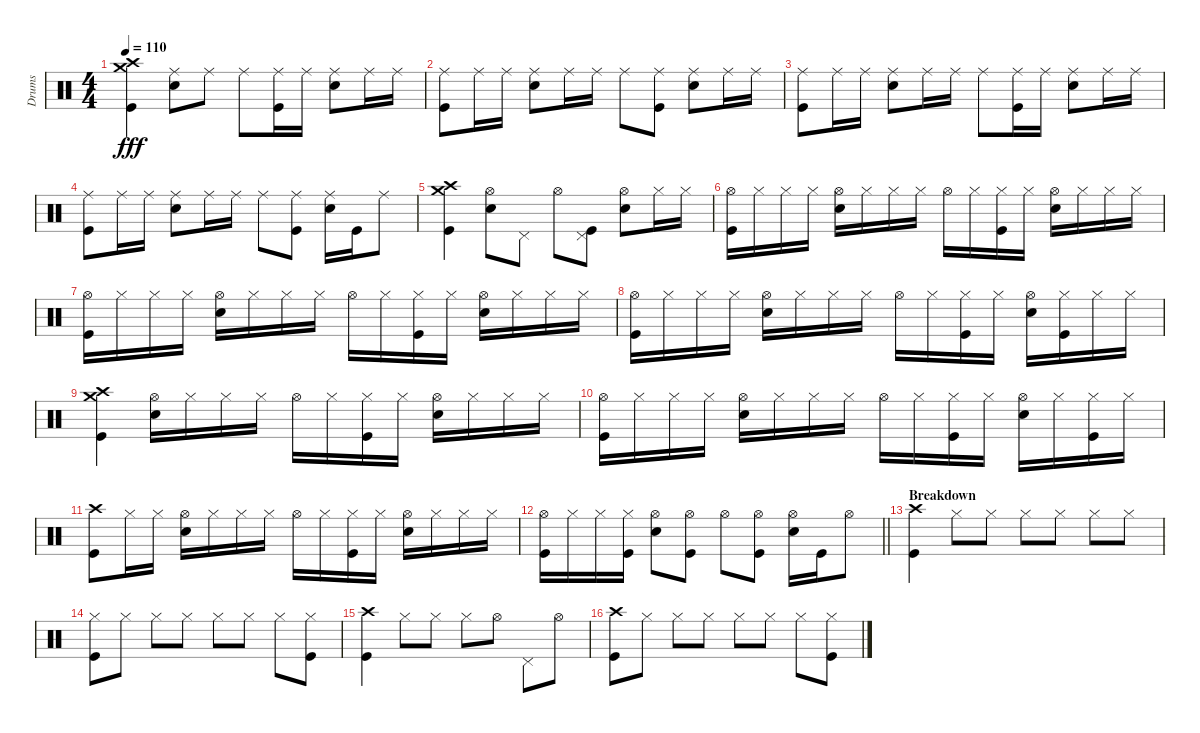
\track ("Drums" "Drums") {instrument percussion}
\staff {score}
\articulation defaults
\ts (4 4)
\tempo 110
\clef neutral
\ks c
("Crash medium (hit)" "Crash high (hit)" "Kick (hit)").4{dy fff} ("Ride (middle)" "Snare (hit) 2").8 "Ride (middle)".8 "Ride (middle)".8 ("Ride (middle)" "Kick (hit)").16 "Ride (middle)".16 ("Ride (middle)" "Snare (hit) 2").8 "Ride (middle)".16 "Ride (middle)".16 |
("Ride (middle)" "Kick (hit)").8 "Ride (middle)".16 "Ride (middle)".16 ("Ride (middle)" "Snare (hit) 2").8 "Ride (middle)".16 "Ride (middle)".16 "Ride (middle)".8 ("Ride (middle)" "Kick (hit)").8 ("Ride (middle)" "Snare (hit) 2").8 "Ride (middle)".16 "Ride (middle)".16 |
("Ride (middle)" "Kick (hit)").8 "Ride (middle)".16 "Ride (middle)".16 ("Ride (middle)" "Snare (hit) 2").8 "Ride (middle)".16 "Ride (middle)".16 "Ride (middle)".8 ("Ride (middle)" "Kick (hit)").16 "Ride (middle)".16 ("Ride (middle)" "Snare (hit) 2").8 "Ride (middle)".16 "Ride (middle)".16 |
("Ride (middle)" "Kick (hit)").8 "Ride (middle)".16 "Ride (middle)".16 ("Ride (middle)" "Snare (hit) 2").8 "Ride (middle)".16 "Ride (middle)".16 "Ride (middle)".8 ("Ride (middle)" "Kick (hit)").8 ("Ride (middle)" "Snare (hit) 2").16 "Kick (hit)".16 "Ride (middle)".8 |
("Crash medium (hit)" "Crash high (hit)" "Kick (hit)").4 ("Hi-Hat (open)" "Snare (hit) 2").8 "Pedal Hi-Hat (hit)".8 "Hi-Hat (open)".8 ("Pedal Hi-Hat (hit)" "Kick (hit)").8 ("Hi-Hat (open)" "Snare (hit) 2").8 "Hi-Hat (closed)".16 "Hi-Hat (closed)".16 |
("Hi-Hat (open)" "Kick (hit)").16 "Hi-Hat (closed)".16 "Hi-Hat (closed)".16 "Hi-Hat (closed)".16 ("Hi-Hat (open)" "Snare (hit) 2").16 "Hi-Hat (closed)".16 "Hi-Hat (closed)".16 "Hi-Hat (closed)".16 "Hi-Hat (open)".16 "Hi-Hat (closed)".16 ("Hi-Hat (closed)" "Kick (hit)").16 "Hi-Hat (closed)".16 ("Hi-Hat (open)" "Snare (hit) 2").16 "Hi-Hat (closed)".16 "Hi-Hat (closed)".16 "Hi-Hat (closed)".16 |
("Hi-Hat (open)" "Kick (hit)").16 "Hi-Hat (closed)".16 "Hi-Hat (closed)".16 "Hi-Hat (closed)".16 ("Hi-Hat (open)" "Snare (hit) 2").16 "Hi-Hat (closed)".16 "Hi-Hat (closed)".16 "Hi-Hat (closed)".16 "Hi-Hat (open)".16 "Hi-Hat (closed)".16 ("Hi-Hat (closed)" "Kick (hit)").16 "Hi-Hat (closed)".16 ("Hi-Hat (open)" "Snare (hit) 2").16 "Hi-Hat (closed)".16 "Hi-Hat (closed)".16 "Hi-Hat (closed)".16 |
("Hi-Hat (open)" "Kick (hit)").16 "Hi-Hat (closed)".16 "Hi-Hat (closed)".16 "Hi-Hat (closed)".16 ("Hi-Hat (open)" "Snare (hit) 2").16 "Hi-Hat (closed)".16 "Hi-Hat (closed)".16 "Hi-Hat (closed)".16 "Hi-Hat (open)".16 "Hi-Hat (closed)".16 ("Hi-Hat (closed)" "Kick (hit)").16 "Hi-Hat (closed)".16 ("Hi-Hat (open)" "Snare (hit) 2").16 ("Hi-Hat (closed)" "Kick (hit)").16 "Hi-Hat (closed)".16 "Hi-Hat (closed)".16 |
("Crash medium (hit)" "Crash high (hit)" "Kick (hit)").4 ("Hi-Hat (open)" "Snare (hit) 2").16 "Hi-Hat (closed)".16 "Hi-Hat (closed)".16 "Hi-Hat (closed)".16 "Hi-Hat (open)".16 "Hi-Hat (closed)".16 ("Hi-Hat (closed)" "Kick (hit)").16 "Hi-Hat (closed)".16 ("Hi-Hat (open)" "Snare (hit) 2").16 "Hi-Hat (closed)".16 "Hi-Hat (closed)".16 "Hi-Hat (closed)".16 |
("Hi-Hat (open)" "Kick (hit)").16 "Hi-Hat (closed)".16 "Hi-Hat (closed)".16 "Hi-Hat (closed)".16 ("Hi-Hat (open)" "Snare (hit) 2").16 "Hi-Hat (closed)".16 "Hi-Hat (closed)".16 "Hi-Hat (closed)".16 "Hi-Hat (open)".16 "Hi-Hat (closed)".16 ("Hi-Hat (closed)" "Kick (hit)").16 "Hi-Hat (closed)".16 ("Hi-Hat (open)" "Snare (hit) 2").16 "Hi-Hat (closed)".16 ("Hi-Hat (closed)" "Kick (hit)").16 "Hi-Hat (closed)".16 |
("Crash high (hit)" "Kick (hit)").8 "Hi-Hat (closed)".16 "Hi-Hat (closed)".16 ("Hi-Hat (open)" "Snare (hit) 2").16 "Hi-Hat (closed)".16 "Hi-Hat (closed)".16 "Hi-Hat (closed)".16 "Hi-Hat (open)".16 "Hi-Hat (closed)".16 ("Hi-Hat (closed)" "Kick (hit)").16 "Hi-Hat (closed)".16 ("Hi-Hat (open)" "Snare (hit) 2").16 "Hi-Hat (closed)".16 "Hi-Hat (closed)".16 "Hi-Hat (closed)".16 |
\barLineRight lightlight
("Hi-Hat (open)" "Kick (hit)").16 "Hi-Hat (closed)".16 "Hi-Hat (closed)".16 ("Hi-Hat (closed)" "Kick (hit)").16 ("Hi-Hat (open)" "Snare (hit) 2").8 ("Hi-Hat (open)" "Kick (hit)").8 "Hi-Hat (open)".8 ("Hi-Hat (open)" "Kick (hit)").8 ("Hi-Hat (open)" "Snare (hit) 2").16 "Kick (hit)".16 "Hi-Hat (open)".8 |
\section ("" "Breakdown")
("Crash high (hit)" "Kick (hit)").4 "Hi-Hat (closed)".8 "Hi-Hat (closed)".8 "Hi-Hat (closed)".8 "Hi-Hat (closed)".8 "Hi-Hat (closed)".8 "Hi-Hat (closed)".8 |
("Hi-Hat (closed)" "Kick (hit)").8 "Hi-Hat (closed)".8 "Hi-Hat (closed)".8 "Hi-Hat (closed)".8 "Hi-Hat (closed)".8 "Hi-Hat (closed)".8 "Hi-Hat (closed)".8 ("Hi-Hat (closed)" "Kick (hit)").8 |
("Crash high (hit)" "Kick (hit)").4 "Hi-Hat (closed)".8 "Hi-Hat (closed)".8 "Hi-Hat (closed)".8 "Hi-Hat (open)".8 "Pedal Hi-Hat (hit)".8 "Hi-Hat (open)".8 |
("Crash high (hit)" "Kick (hit)").8 "Hi-Hat (closed)".8 "Hi-Hat (closed)".8 "Hi-Hat (closed)".8 "Hi-Hat (closed)".8 "Hi-Hat (closed)".8 "Hi-Hat (closed)".8 ("Hi-Hat (closed)" "Kick (hit)").8
